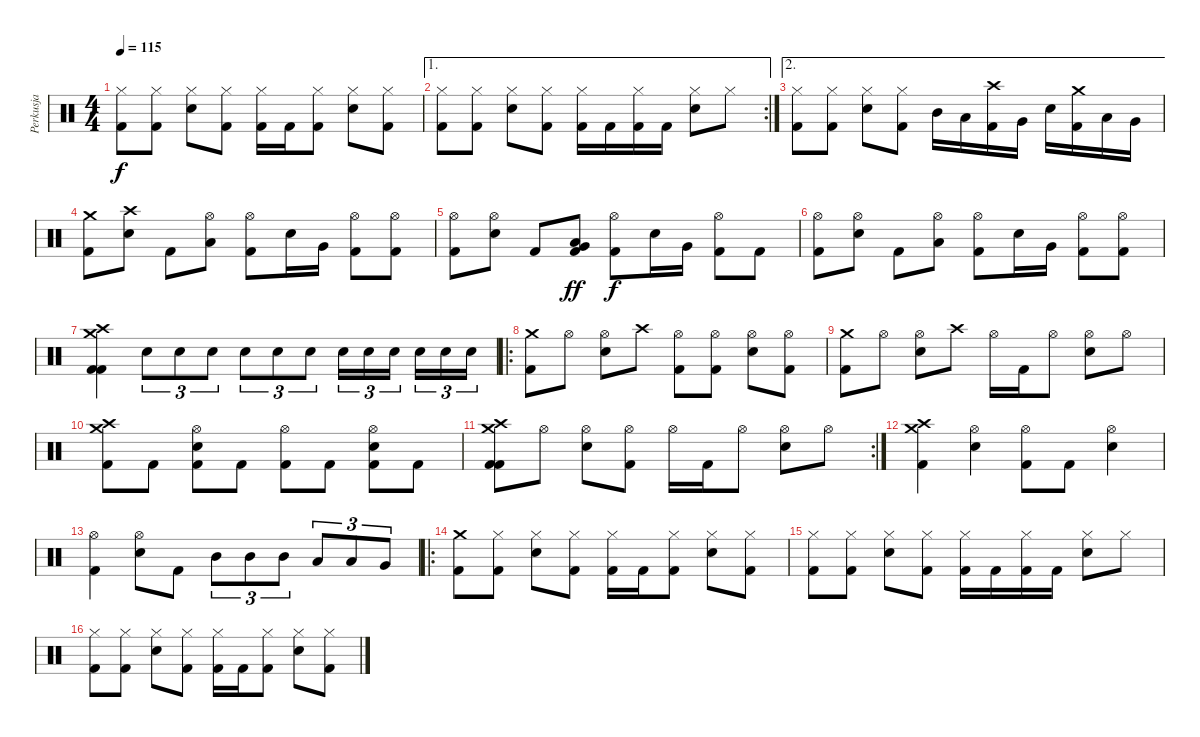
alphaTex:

\track ("Perkusja" "Perkusja") {instrument percussion}
\staff {score}
\articulation defaults
\ts (4 4)
\tempo 115
\clef neutral
\ks c
("Hi-Hat (closed)" "Kick (hit) 2").8{dy f} ("Hi-Hat (closed)" "Kick (hit) 2").8 ("Hi-Hat (closed)" "Snare (hit) 2").8 ("Hi-Hat (closed)" "Kick (hit) 2").8 ("Hi-Hat (closed)" "Kick (hit) 2").16 "Kick (hit) 2".16 ("Hi-Hat (closed)" "Kick (hit) 2").8 ("Hi-Hat (closed)" "Snare (hit) 2").8 ("Hi-Hat (closed)" "Kick (hit) 2").8 |
\ae 1
\rc 2
("Hi-Hat (closed)" "Kick (hit) 2").8 ("Hi-Hat (closed)" "Kick (hit) 2").8 ("Hi-Hat (closed)" "Snare (hit) 2").8 ("Hi-Hat (closed)" "Kick (hit) 2").8 ("Hi-Hat (closed)" "Kick (hit) 2").16 "Kick (hit) 2".16 ("Hi-Hat (closed)" "Kick (hit) 2").16 "Kick (hit) 2".16 ("Hi-Hat (closed)" "Snare (hit) 2").8 "Hi-Hat (closed)".8 |
\ae 2
("Hi-Hat (closed)" "Kick (hit) 2").8 ("Hi-Hat (closed)" "Kick (hit) 2").8 ("Hi-Hat (closed)" "Snare (hit) 2").8 ("Hi-Hat (closed)" "Kick (hit) 2").8 "Mid Tom (hit)".16 "Low Tom (hit)".16 ("Crash high (hit)" "Kick (hit) 2").16 "Very Low Tom (hit)".16 "Snare (hit) 2".16 ("Crash medium (hit)" "Kick (hit) 2").16 "Low Tom (hit)".16 "Very Low Tom (hit)".16 |
("Crash medium (hit)" "Kick (hit) 2").8 ("Crash high (hit)" "Snare (hit) 2").8 "Kick (hit) 2".8 ("Hi-Hat (open)" "Low Tom (hit)").8 ("Hi-Hat (open)" "Kick (hit) 2").8 "Snare (hit) 2".16 "Very Low Tom (hit)".16 ("Hi-Hat (open)" "Kick (hit) 2").8 ("Hi-Hat (open)" "Kick (hit) 2").8 |
("Hi-Hat (open)" "Kick (hit) 2").8 ("Hi-Hat (open)" "Snare (hit) 2").8 "Kick (hit) 2".8 ("Very Low Tom (hit)" "Low Tom (hit)" "Kick (hit) 2").8{dy ff} ("Hi-Hat (open)" "Kick (hit) 2").8{dy f} "Snare (hit) 2".16 "Very Low Tom (hit)".16 ("Hi-Hat (open)" "Kick (hit) 2").8 "Kick (hit) 2".8 |
("Hi-Hat (open)" "Kick (hit) 2").8 ("Hi-Hat (open)" "Snare (hit) 2").8 "Kick (hit) 2".8 ("Hi-Hat (open)" "Low Tom (hit)").8 ("Hi-Hat (open)" "Kick (hit) 2").8 "Snare (hit) 2".16 "Very Low Tom (hit)".16 ("Hi-Hat (open)" "Kick (hit) 2").8 ("Hi-Hat (open)" "Kick (hit) 2").8 |
("Crash medium (hit)" "Crash high (hit)" "Kick (hit) 2" "Kick (hit) 2").4 "Snare (hit) 2".8{tu (3 2)} "Snare (hit) 2".8{tu (3 2)} "Snare (hit) 2".8{tu (3 2)} "Snare (hit) 2".8{tu (3 2)} "Snare (hit) 2".8{tu (3 2)} "Snare (hit) 2".8{tu (3 2)} "Snare (hit) 2".16{tu (3 2)} "Snare (hit) 2".16{tu (3 2)} "Snare (hit) 2".16{tu (3 2)} "Snare (hit) 2".16{tu (3 2)} "Snare (hit) 2".16{tu (3 2)} "Snare (hit) 2".16{tu (3 2)} |
\ro
("Crash medium (hit)" "Kick (hit) 2").8 "Hi-Hat (open)".8 ("Hi-Hat (open)" "Snare (hit) 2").8 "Crash high (hit)".8 ("Hi-Hat (open)" "Kick (hit) 2").8 ("Hi-Hat (open)" "Kick (hit) 2").8 ("Hi-Hat (open)" "Snare (hit) 2").8 ("Hi-Hat (open)" "Kick (hit) 2").8 |
("Crash medium (hit)" "Kick (hit) 2").8 "Hi-Hat (open)".8 ("Hi-Hat (open)" "Snare (hit) 2").8 "Crash high (hit)".8 "Hi-Hat (open)".16 "Kick (hit) 2".16 "Hi-Hat (open)".8 ("Hi-Hat (open)" "Snare (hit) 2").8 "Hi-Hat (open)".8 |
("Crash medium (hit)" "Crash high (hit)" "Kick (hit) 2").8 "Kick (hit) 2".8 ("Hi-Hat (open)" "Snare (hit) 2" "Kick (hit) 2").8 "Kick (hit) 2".8 ("Hi-Hat (open)" "Kick (hit) 2").8 "Kick (hit) 2".8 ("Hi-Hat (open)" "Snare (hit) 2" "Kick (hit) 2").8 "Kick (hit) 2".8 |
\rc 2
("Crash medium (hit)" "Crash high (hit)" "Kick (hit) 2" "Kick (hit) 2").8 "Hi-Hat (open)".8 ("Hi-Hat (open)" "Snare (hit) 2").8 ("Hi-Hat (open)" "Kick (hit) 2").8 "Hi-Hat (open)".16 "Kick (hit) 2".16 "Hi-Hat (open)".8 ("Hi-Hat (open)" "Snare (hit) 2").8 "Hi-Hat (open)".8 |
("Crash medium (hit)" "Crash high (hit)" "Kick (hit) 2").4 ("Hi-Hat (open)" "Snare (hit) 2").4 ("Hi-Hat (open)" "Kick (hit) 2").8 "Kick (hit) 2".8 ("Hi-Hat (open)" "Snare (hit) 2").4 |
("Hi-Hat (open)" "Kick (hit) 2").4 ("Hi-Hat (open)" "Snare (hit) 2").8 "Kick (hit) 2".8 "Mid Tom (hit)".8{tu (3 2)} "Mid Tom (hit)".8{tu (3 2)} "Mid Tom (hit)".8{tu (3 2)} "Low Tom (hit)".8{tu (3 2)} "Low Tom (hit)".8{tu (3 2)} "Very Low Tom (hit)".8{tu (3 2)} |
\ro
("Crash medium (hit)" "Kick (hit) 2").8 ("Hi-Hat (closed)" "Kick (hit) 2").8 ("Hi-Hat (closed)" "Snare (hit) 2").8 ("Hi-Hat (closed)" "Kick (hit) 2").8 ("Hi-Hat (closed)" "Kick (hit) 2").16 "Kick (hit) 2".16 ("Hi-Hat (closed)" "Kick (hit) 2").8 ("Hi-Hat (closed)" "Snare (hit) 2").8 ("Hi-Hat (closed)" "Kick (hit) 2").8 |
("Hi-Hat (closed)" "Kick (hit) 2").8 ("Hi-Hat (closed)" "Kick (hit) 2").8 ("Hi-Hat (closed)" "Snare (hit) 2").8 ("Hi-Hat (closed)" "Kick (hit) 2").8 ("Hi-Hat (closed)" "Kick (hit) 2").16 "Kick (hit) 2".16 ("Hi-Hat (closed)" "Kick (hit) 2").16 "Kick (hit) 2".16 ("Hi-Hat (closed)" "Snare (hit) 2").8 "Hi-Hat (closed)".8 |
("Hi-Hat (closed)" "Kick (hit) 2").8 ("Hi-Hat (closed)" "Kick (hit) 2").8 ("Hi-Hat (closed)" "Snare (hit) 2").8 ("Hi-Hat (closed)" "Kick (hit) 2").8 ("Hi-Hat (closed)" "Kick (hit) 2").16 "Kick (hit) 2".16 ("Hi-Hat (closed)" "Kick (hit) 2").8 ("Hi-Hat (closed)" "Snare (hit) 2").8 ("Hi-Hat (closed)" "Kick (hit) 2").8
